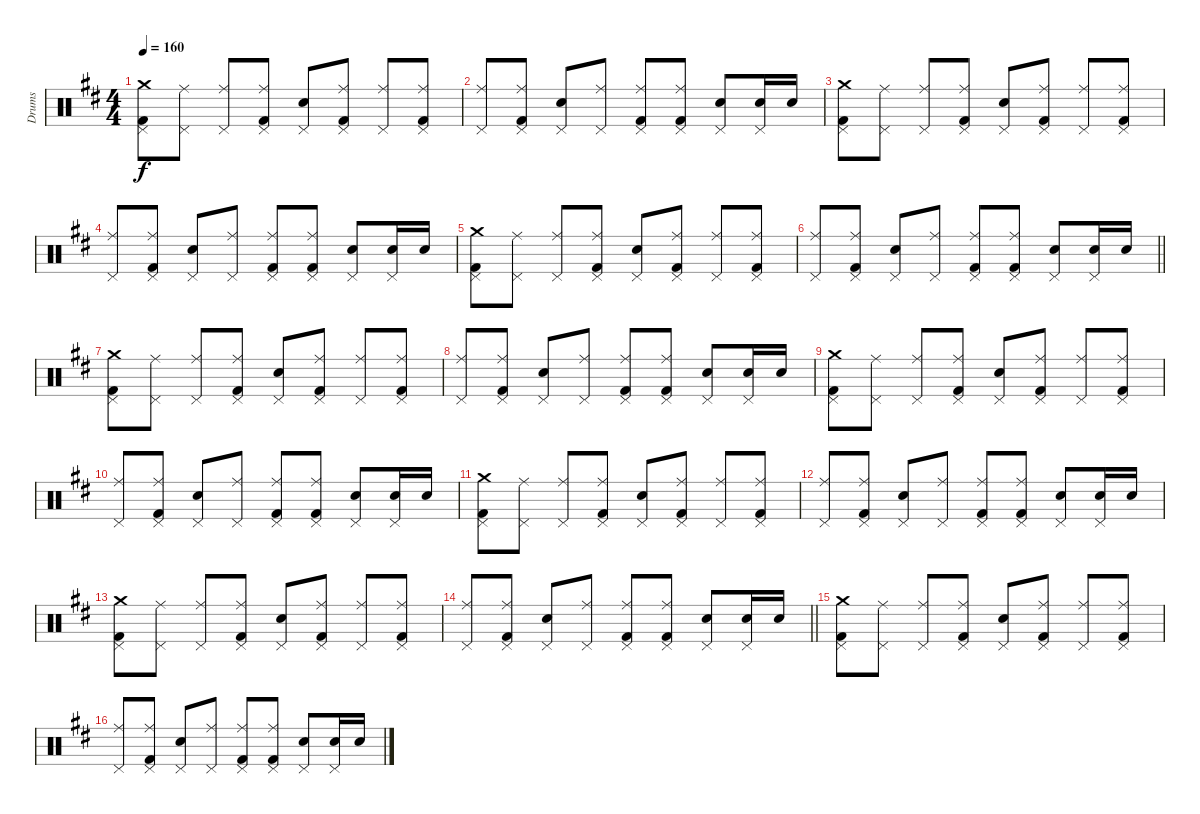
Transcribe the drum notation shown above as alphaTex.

\track ("Drums" "Drums") {instrument percussion}
\staff {score}
\articulation defaults
\ts (4 4)
\tempo 160
\clef neutral
\ks d
("Crash medium (hit)" "Pedal Hi-Hat (hit)" "Kick (hit) 2").8{dy f} ("Ride (middle)" "Pedal Hi-Hat (hit)").8 ("Ride (middle)" "Pedal Hi-Hat (hit)").8 ("Ride (middle)" "Pedal Hi-Hat (hit)" "Kick (hit) 2").8 ("Electric Snare (hit)" "Pedal Hi-Hat (hit)").8 ("Ride (middle)" "Pedal Hi-Hat (hit)" "Kick (hit) 2").8 ("Ride (middle)" "Pedal Hi-Hat (hit)").8 ("Ride (middle)" "Pedal Hi-Hat (hit)" "Kick (hit) 2").8 |
("Ride (middle)" "Pedal Hi-Hat (hit)").8 ("Ride (middle)" "Pedal Hi-Hat (hit)" "Kick (hit) 2").8 ("Electric Snare (hit)" "Pedal Hi-Hat (hit)").8 ("Ride (middle)" "Pedal Hi-Hat (hit)").8 ("Ride (middle)" "Pedal Hi-Hat (hit)" "Kick (hit) 2").8 ("Ride (middle)" "Pedal Hi-Hat (hit)" "Kick (hit) 2").8 ("Electric Snare (hit)" "Pedal Hi-Hat (hit)").8 ("Snare (hit) 2" "Pedal Hi-Hat (hit)").16 "Snare (hit) 2".16 |
("Crash medium (hit)" "Pedal Hi-Hat (hit)" "Kick (hit) 2").8 ("Ride (middle)" "Pedal Hi-Hat (hit)").8 ("Ride (middle)" "Pedal Hi-Hat (hit)").8 ("Ride (middle)" "Pedal Hi-Hat (hit)" "Kick (hit) 2").8 ("Electric Snare (hit)" "Pedal Hi-Hat (hit)").8 ("Ride (middle)" "Pedal Hi-Hat (hit)" "Kick (hit) 2").8 ("Ride (middle)" "Pedal Hi-Hat (hit)").8 ("Ride (middle)" "Pedal Hi-Hat (hit)" "Kick (hit) 2").8 |
("Ride (middle)" "Pedal Hi-Hat (hit)").8 ("Ride (middle)" "Pedal Hi-Hat (hit)" "Kick (hit) 2").8 ("Electric Snare (hit)" "Pedal Hi-Hat (hit)").8 ("Ride (middle)" "Pedal Hi-Hat (hit)").8 ("Ride (middle)" "Pedal Hi-Hat (hit)" "Kick (hit) 2").8 ("Ride (middle)" "Pedal Hi-Hat (hit)" "Kick (hit) 2").8 ("Electric Snare (hit)" "Pedal Hi-Hat (hit)").8 ("Snare (hit) 2" "Pedal Hi-Hat (hit)").16 "Snare (hit) 2".16 |
("Crash medium (hit)" "Pedal Hi-Hat (hit)" "Kick (hit) 2").8 ("Ride (middle)" "Pedal Hi-Hat (hit)").8 ("Ride (middle)" "Pedal Hi-Hat (hit)").8 ("Ride (middle)" "Pedal Hi-Hat (hit)" "Kick (hit) 2").8 ("Electric Snare (hit)" "Pedal Hi-Hat (hit)").8 ("Ride (middle)" "Pedal Hi-Hat (hit)" "Kick (hit) 2").8 ("Ride (middle)" "Pedal Hi-Hat (hit)").8 ("Ride (middle)" "Pedal Hi-Hat (hit)" "Kick (hit) 2").8 |
\barLineRight lightlight
("Ride (middle)" "Pedal Hi-Hat (hit)").8 ("Ride (middle)" "Pedal Hi-Hat (hit)" "Kick (hit) 2").8 ("Electric Snare (hit)" "Pedal Hi-Hat (hit)").8 ("Ride (middle)" "Pedal Hi-Hat (hit)").8 ("Ride (middle)" "Pedal Hi-Hat (hit)" "Kick (hit) 2").8 ("Ride (middle)" "Pedal Hi-Hat (hit)" "Kick (hit) 2").8 ("Electric Snare (hit)" "Pedal Hi-Hat (hit)").8 ("Snare (hit) 2" "Pedal Hi-Hat (hit)").16 "Snare (hit) 2".16 |
("Crash medium (hit)" "Pedal Hi-Hat (hit)" "Kick (hit) 2").8 ("Ride (middle)" "Pedal Hi-Hat (hit)").8 ("Ride (middle)" "Pedal Hi-Hat (hit)").8 ("Ride (middle)" "Pedal Hi-Hat (hit)" "Kick (hit) 2").8 ("Electric Snare (hit)" "Pedal Hi-Hat (hit)").8 ("Ride (middle)" "Pedal Hi-Hat (hit)" "Kick (hit) 2").8 ("Ride (middle)" "Pedal Hi-Hat (hit)").8 ("Ride (middle)" "Pedal Hi-Hat (hit)" "Kick (hit) 2").8 |
("Ride (middle)" "Pedal Hi-Hat (hit)").8 ("Ride (middle)" "Pedal Hi-Hat (hit)" "Kick (hit) 2").8 ("Electric Snare (hit)" "Pedal Hi-Hat (hit)").8 ("Ride (middle)" "Pedal Hi-Hat (hit)").8 ("Ride (middle)" "Pedal Hi-Hat (hit)" "Kick (hit) 2").8 ("Ride (middle)" "Pedal Hi-Hat (hit)" "Kick (hit) 2").8 ("Electric Snare (hit)" "Pedal Hi-Hat (hit)").8 ("Snare (hit) 2" "Pedal Hi-Hat (hit)").16 "Snare (hit) 2".16 |
("Crash medium (hit)" "Pedal Hi-Hat (hit)" "Kick (hit) 2").8 ("Ride (middle)" "Pedal Hi-Hat (hit)").8 ("Ride (middle)" "Pedal Hi-Hat (hit)").8 ("Ride (middle)" "Pedal Hi-Hat (hit)" "Kick (hit) 2").8 ("Electric Snare (hit)" "Pedal Hi-Hat (hit)").8 ("Ride (middle)" "Pedal Hi-Hat (hit)" "Kick (hit) 2").8 ("Ride (middle)" "Pedal Hi-Hat (hit)").8 ("Ride (middle)" "Pedal Hi-Hat (hit)" "Kick (hit) 2").8 |
("Ride (middle)" "Pedal Hi-Hat (hit)").8 ("Ride (middle)" "Pedal Hi-Hat (hit)" "Kick (hit) 2").8 ("Electric Snare (hit)" "Pedal Hi-Hat (hit)").8 ("Ride (middle)" "Pedal Hi-Hat (hit)").8 ("Ride (middle)" "Pedal Hi-Hat (hit)" "Kick (hit) 2").8 ("Ride (middle)" "Pedal Hi-Hat (hit)" "Kick (hit) 2").8 ("Electric Snare (hit)" "Pedal Hi-Hat (hit)").8 ("Snare (hit) 2" "Pedal Hi-Hat (hit)").16 "Snare (hit) 2".16 |
("Crash medium (hit)" "Pedal Hi-Hat (hit)" "Kick (hit) 2").8 ("Ride (middle)" "Pedal Hi-Hat (hit)").8 ("Ride (middle)" "Pedal Hi-Hat (hit)").8 ("Ride (middle)" "Pedal Hi-Hat (hit)" "Kick (hit) 2").8 ("Electric Snare (hit)" "Pedal Hi-Hat (hit)").8 ("Ride (middle)" "Pedal Hi-Hat (hit)" "Kick (hit) 2").8 ("Ride (middle)" "Pedal Hi-Hat (hit)").8 ("Ride (middle)" "Pedal Hi-Hat (hit)" "Kick (hit) 2").8 |
("Ride (middle)" "Pedal Hi-Hat (hit)").8 ("Ride (middle)" "Pedal Hi-Hat (hit)" "Kick (hit) 2").8 ("Electric Snare (hit)" "Pedal Hi-Hat (hit)").8 ("Ride (middle)" "Pedal Hi-Hat (hit)").8 ("Ride (middle)" "Pedal Hi-Hat (hit)" "Kick (hit) 2").8 ("Ride (middle)" "Pedal Hi-Hat (hit)" "Kick (hit) 2").8 ("Electric Snare (hit)" "Pedal Hi-Hat (hit)").8 ("Snare (hit) 2" "Pedal Hi-Hat (hit)").16 "Snare (hit) 2".16 |
("Crash medium (hit)" "Pedal Hi-Hat (hit)" "Kick (hit) 2").8 ("Ride (middle)" "Pedal Hi-Hat (hit)").8 ("Ride (middle)" "Pedal Hi-Hat (hit)").8 ("Ride (middle)" "Pedal Hi-Hat (hit)" "Kick (hit) 2").8 ("Electric Snare (hit)" "Pedal Hi-Hat (hit)").8 ("Ride (middle)" "Pedal Hi-Hat (hit)" "Kick (hit) 2").8 ("Ride (middle)" "Pedal Hi-Hat (hit)").8 ("Ride (middle)" "Pedal Hi-Hat (hit)" "Kick (hit) 2").8 |
\barLineRight lightlight
("Ride (middle)" "Pedal Hi-Hat (hit)").8 ("Ride (middle)" "Pedal Hi-Hat (hit)" "Kick (hit) 2").8 ("Electric Snare (hit)" "Pedal Hi-Hat (hit)").8 ("Ride (middle)" "Pedal Hi-Hat (hit)").8 ("Ride (middle)" "Pedal Hi-Hat (hit)" "Kick (hit) 2").8 ("Ride (middle)" "Pedal Hi-Hat (hit)" "Kick (hit) 2").8 ("Electric Snare (hit)" "Pedal Hi-Hat (hit)").8 ("Snare (hit) 2" "Pedal Hi-Hat (hit)").16 "Snare (hit) 2".16 |
("Crash medium (hit)" "Pedal Hi-Hat (hit)" "Kick (hit) 2").8 ("Ride (middle)" "Pedal Hi-Hat (hit)").8 ("Ride (middle)" "Pedal Hi-Hat (hit)").8 ("Ride (middle)" "Pedal Hi-Hat (hit)" "Kick (hit) 2").8 ("Electric Snare (hit)" "Pedal Hi-Hat (hit)").8 ("Ride (middle)" "Pedal Hi-Hat (hit)" "Kick (hit) 2").8 ("Ride (middle)" "Pedal Hi-Hat (hit)").8 ("Ride (middle)" "Pedal Hi-Hat (hit)" "Kick (hit) 2").8 |
("Ride (middle)" "Pedal Hi-Hat (hit)").8 ("Ride (middle)" "Pedal Hi-Hat (hit)" "Kick (hit) 2").8 ("Electric Snare (hit)" "Pedal Hi-Hat (hit)").8 ("Ride (middle)" "Pedal Hi-Hat (hit)").8 ("Ride (middle)" "Pedal Hi-Hat (hit)" "Kick (hit) 2").8 ("Ride (middle)" "Pedal Hi-Hat (hit)" "Kick (hit) 2").8 ("Electric Snare (hit)" "Pedal Hi-Hat (hit)").8 ("Snare (hit) 2" "Pedal Hi-Hat (hit)").16 "Snare (hit) 2".16
